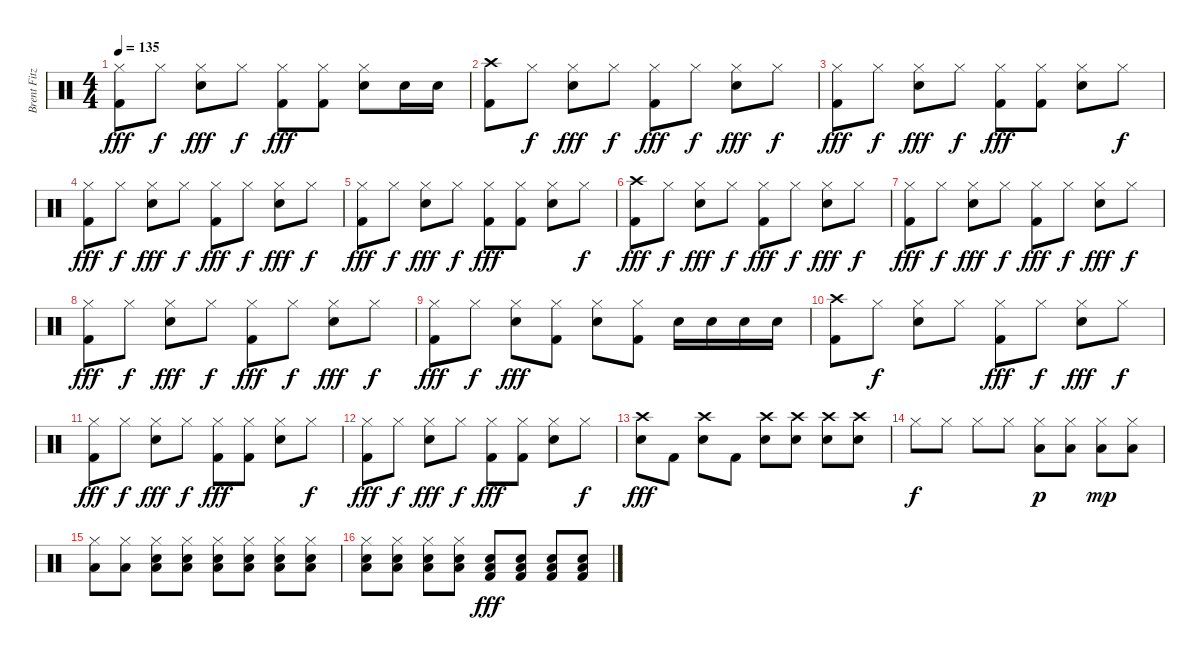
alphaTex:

\track ("Brent Fitz" "Brent Fitz") {instrument percussion}
\staff {score}
\articulation defaults
\ts (4 4)
\tempo 135
\clef neutral
\ks c
("Hi-Hat (closed)" "Kick (hit) 2").8{dy fff} "Hi-Hat (closed)".8{dy f} ("Hi-Hat (closed)" "Snare (hit) 2").8{dy fff} "Hi-Hat (closed)".8{dy f} ("Hi-Hat (closed)" "Kick (hit) 2").8{dy fff} ("Hi-Hat (closed)" "Kick (hit) 2").8 ("Hi-Hat (closed)" "Snare (hit) 2").8 "Snare (hit) 2".16 "Snare (hit) 2".16 |
("Crash high (hit)" "Kick (hit) 2").8 "Hi-Hat (closed)".8{dy f} ("Hi-Hat (closed)" "Snare (hit) 2").8{dy fff} "Hi-Hat (closed)".8{dy f} ("Hi-Hat (closed)" "Kick (hit) 2").8{dy fff} "Hi-Hat (closed)".8{dy f} ("Hi-Hat (closed)" "Snare (hit) 2").8{dy fff} "Hi-Hat (closed)".8{dy f} |
("Hi-Hat (closed)" "Kick (hit) 2").8{dy fff} "Hi-Hat (closed)".8{dy f} ("Hi-Hat (closed)" "Snare (hit) 2").8{dy fff} "Hi-Hat (closed)".8{dy f} ("Hi-Hat (closed)" "Kick (hit) 2").8{dy fff} ("Hi-Hat (closed)" "Kick (hit) 2").8 ("Hi-Hat (closed)" "Snare (hit) 2").8 "Hi-Hat (closed)".8{dy f} |
("Hi-Hat (closed)" "Kick (hit) 2").8{dy fff} "Hi-Hat (closed)".8{dy f} ("Hi-Hat (closed)" "Snare (hit) 2").8{dy fff} "Hi-Hat (closed)".8{dy f} ("Hi-Hat (closed)" "Kick (hit) 2").8{dy fff} "Hi-Hat (closed)".8{dy f} ("Hi-Hat (closed)" "Snare (hit) 2").8{dy fff} "Hi-Hat (closed)".8{dy f} |
("Hi-Hat (closed)" "Kick (hit) 2").8{dy fff} "Hi-Hat (closed)".8{dy f} ("Hi-Hat (closed)" "Snare (hit) 2").8{dy fff} "Hi-Hat (closed)".8{dy f} ("Hi-Hat (closed)" "Kick (hit) 2").8{dy fff} ("Hi-Hat (closed)" "Kick (hit) 2").8 ("Hi-Hat (closed)" "Snare (hit) 2").8 "Hi-Hat (closed)".8{dy f} |
("Crash high (hit)" "Kick (hit) 2").8{dy fff} "Hi-Hat (closed)".8{dy f} ("Hi-Hat (closed)" "Snare (hit) 2").8{dy fff} "Hi-Hat (closed)".8{dy f} ("Hi-Hat (closed)" "Kick (hit) 2").8{dy fff} "Hi-Hat (closed)".8{dy f} ("Hi-Hat (closed)" "Snare (hit) 2").8{dy fff} "Hi-Hat (closed)".8{dy f} |
("Hi-Hat (closed)" "Kick (hit) 2").8{dy fff} "Hi-Hat (closed)".8{dy f} ("Hi-Hat (closed)" "Snare (hit) 2").8{dy fff} "Hi-Hat (closed)".8{dy f} ("Hi-Hat (closed)" "Kick (hit) 2").8{dy fff} "Hi-Hat (closed)".8{dy f} ("Hi-Hat (closed)" "Snare (hit) 2").8{dy fff} "Hi-Hat (closed)".8{dy f} |
("Hi-Hat (closed)" "Kick (hit) 2").8{dy fff} "Hi-Hat (closed)".8{dy f} ("Hi-Hat (closed)" "Snare (hit) 2").8{dy fff} "Hi-Hat (closed)".8{dy f} ("Hi-Hat (closed)" "Kick (hit) 2").8{dy fff} "Hi-Hat (closed)".8{dy f} ("Hi-Hat (closed)" "Snare (hit) 2").8{dy fff} "Hi-Hat (closed)".8{dy f} |
("Hi-Hat (closed)" "Kick (hit) 2").8{dy fff} "Hi-Hat (closed)".8{dy f} ("Hi-Hat (closed)" "Snare (hit) 2").8{dy fff} ("Hi-Hat (closed)" "Kick (hit) 2").8 ("Hi-Hat (closed)" "Snare (hit) 2").8 ("Hi-Hat (closed)" "Kick (hit) 2").8 "Snare (hit) 2".16 "Snare (hit) 2".16 "Snare (hit) 2".16 "Snare (hit) 2".16 |
("Crash high (hit)" "Kick (hit) 2").8 "Hi-Hat (closed)".8{dy f} ("Hi-Hat (closed)" "Snare (hit) 2").8 "Hi-Hat (closed)".8 ("Hi-Hat (closed)" "Kick (hit) 2").8{dy fff} "Hi-Hat (closed)".8{dy f} ("Hi-Hat (closed)" "Snare (hit) 2").8{dy fff} "Hi-Hat (closed)".8{dy f} |
("Hi-Hat (closed)" "Kick (hit) 2").8{dy fff} "Hi-Hat (closed)".8{dy f} ("Hi-Hat (closed)" "Snare (hit) 2").8{dy fff} "Hi-Hat (closed)".8{dy f} ("Hi-Hat (closed)" "Kick (hit) 2").8{dy fff} ("Hi-Hat (closed)" "Kick (hit) 2").8 ("Hi-Hat (closed)" "Snare (hit) 2").8 "Hi-Hat (closed)".8{dy f} |
("Hi-Hat (closed)" "Kick (hit) 2").8{dy fff} "Hi-Hat (closed)".8{dy f} ("Hi-Hat (closed)" "Snare (hit) 2").8{dy fff} "Hi-Hat (closed)".8{dy f} ("Hi-Hat (closed)" "Kick (hit) 2").8{dy fff} ("Hi-Hat (closed)" "Kick (hit) 2").8 ("Hi-Hat (closed)" "Snare (hit) 2").8 "Hi-Hat (closed)".8{dy f} |
("Crash high (hit)" "Snare (hit) 2").8{dy fff} "Kick (hit) 2".8 ("Crash high (hit)" "Snare (hit) 2").8 "Kick (hit) 2".8 ("Crash high (hit)" "Snare (hit) 2").8 ("Crash high (hit)" "Snare (hit) 2").8 ("Crash high (hit)" "Snare (hit) 2").8 ("Crash high (hit)" "Snare (hit) 2").8 |
"Hi-Hat (closed)".8{dy f} "Hi-Hat (closed)".8 "Hi-Hat (closed)".8 "Hi-Hat (closed)".8 ("Hi-Hat (closed)" "Low Floor Tom (hit)").8{dy p} ("Hi-Hat (closed)" "Low Floor Tom (hit)").8 ("Hi-Hat (closed)" "Low Floor Tom (hit)").8{dy mp} ("Hi-Hat (closed)" "Low Floor Tom (hit)").8 |
("Hi-Hat (closed)" "Low Floor Tom (hit)").8 ("Hi-Hat (closed)" "Low Floor Tom (hit)").8 ("Hi-Hat (closed)" "Snare (hit) 2" "Low Floor Tom (hit)").8 ("Hi-Hat (closed)" "Snare (hit) 2" "Low Floor Tom (hit)").8 ("Hi-Hat (closed)" "Snare (hit) 2" "Low Floor Tom (hit)").8 ("Hi-Hat (closed)" "Snare (hit) 2" "Low Floor Tom (hit)").8 ("Hi-Hat (closed)" "Snare (hit) 2" "Low Floor Tom (hit)").8 ("Hi-Hat (closed)" "Snare (hit) 2" "Low Floor Tom (hit)").8 |
("Hi-Hat (closed)" "Snare (hit) 2" "Low Floor Tom (hit)").8 ("Hi-Hat (closed)" "Snare (hit) 2" "Low Floor Tom (hit)").8 ("Hi-Hat (closed)" "Snare (hit) 2" "Low Floor Tom (hit)").8 ("Hi-Hat (closed)" "Snare (hit) 2" "Low Floor Tom (hit)").8 ("Snare (hit) 2" "Low Floor Tom (hit)" "Kick (hit) 2").8{dy fff} ("Snare (hit) 2" "Low Floor Tom (hit)" "Kick (hit) 2").8 ("Snare (hit) 2" "Low Floor Tom (hit)" "Kick (hit) 2").8 ("Snare (hit) 2" "Low Floor Tom (hit)" "Kick (hit) 2").8
